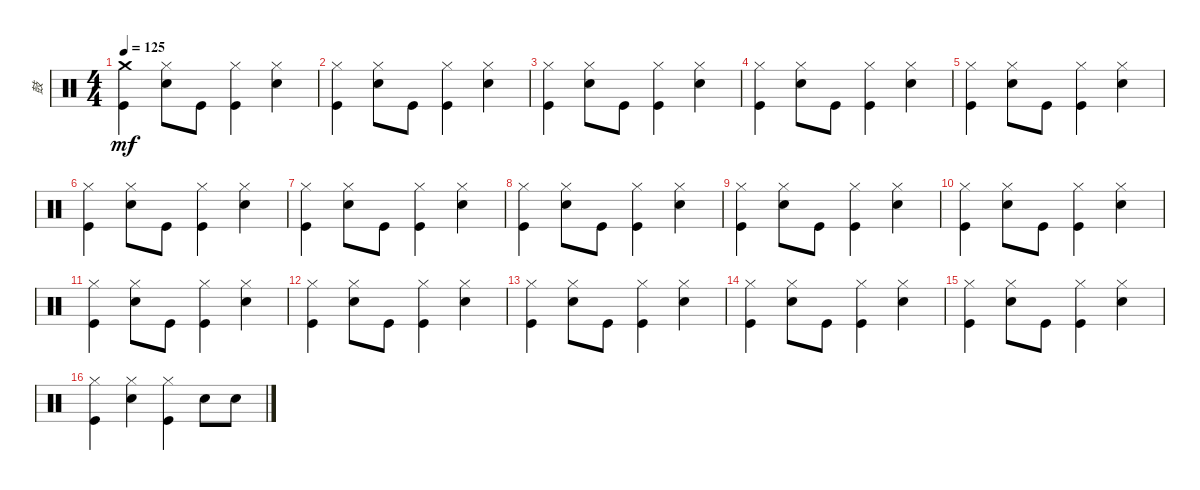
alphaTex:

\track ("鼓" "鼓") {instrument percussion}
\staff {score}
\articulation defaults
\ts (4 4)
\tempo 125
\clef neutral
\ks c
("Kick (hit)" "Crash medium (hit)").4{dy mf} ("Snare (hit) 2" "Hi-Hat (closed)").8 "Kick (hit)".8 ("Kick (hit)" "Hi-Hat (closed)").4 ("Snare (hit) 2" "Hi-Hat (closed)").4 |
("Kick (hit)" "Hi-Hat (closed)").4 ("Snare (hit) 2" "Hi-Hat (closed)").8 "Kick (hit)".8 ("Kick (hit)" "Hi-Hat (closed)").4 ("Snare (hit) 2" "Hi-Hat (closed)").4 |
("Kick (hit)" "Hi-Hat (closed)").4 ("Snare (hit) 2" "Hi-Hat (closed)").8 "Kick (hit)".8 ("Kick (hit)" "Hi-Hat (closed)").4 ("Snare (hit) 2" "Hi-Hat (closed)").4 |
("Kick (hit)" "Hi-Hat (closed)").4 ("Snare (hit) 2" "Hi-Hat (closed)").8 "Kick (hit)".8 ("Kick (hit)" "Hi-Hat (closed)").4 ("Snare (hit) 2" "Hi-Hat (closed)").4 |
("Kick (hit)" "Hi-Hat (closed)").4 ("Snare (hit) 2" "Hi-Hat (closed)").8 "Kick (hit)".8 ("Kick (hit)" "Hi-Hat (closed)").4 ("Snare (hit) 2" "Hi-Hat (closed)").4 |
("Kick (hit)" "Hi-Hat (closed)").4 ("Snare (hit) 2" "Hi-Hat (closed)").8 "Kick (hit)".8 ("Kick (hit)" "Hi-Hat (closed)").4 ("Snare (hit) 2" "Hi-Hat (closed)").4 |
("Kick (hit)" "Hi-Hat (closed)").4 ("Snare (hit) 2" "Hi-Hat (closed)").8 "Kick (hit)".8 ("Kick (hit)" "Hi-Hat (closed)").4 ("Snare (hit) 2" "Hi-Hat (closed)").4 |
("Kick (hit)" "Hi-Hat (closed)").4 ("Snare (hit) 2" "Hi-Hat (closed)").8 "Kick (hit)".8 ("Kick (hit)" "Hi-Hat (closed)").4 ("Snare (hit) 2" "Hi-Hat (closed)").4 |
("Kick (hit)" "Hi-Hat (closed)").4 ("Snare (hit) 2" "Hi-Hat (closed)").8 "Kick (hit)".8 ("Kick (hit)" "Hi-Hat (closed)").4 ("Snare (hit) 2" "Hi-Hat (closed)").4 |
("Kick (hit)" "Hi-Hat (closed)").4 ("Snare (hit) 2" "Hi-Hat (closed)").8 "Kick (hit)".8 ("Kick (hit)" "Hi-Hat (closed)").4 ("Snare (hit) 2" "Hi-Hat (closed)").4 |
("Kick (hit)" "Hi-Hat (closed)").4 ("Snare (hit) 2" "Hi-Hat (closed)").8 "Kick (hit)".8 ("Kick (hit)" "Hi-Hat (closed)").4 ("Snare (hit) 2" "Hi-Hat (closed)").4 |
("Kick (hit)" "Hi-Hat (closed)").4 ("Snare (hit) 2" "Hi-Hat (closed)").8 "Kick (hit)".8 ("Kick (hit)" "Hi-Hat (closed)").4 ("Snare (hit) 2" "Hi-Hat (closed)").4 |
("Kick (hit)" "Hi-Hat (closed)").4 ("Snare (hit) 2" "Hi-Hat (closed)").8 "Kick (hit)".8 ("Kick (hit)" "Hi-Hat (closed)").4 ("Snare (hit) 2" "Hi-Hat (closed)").4 |
("Kick (hit)" "Hi-Hat (closed)").4 ("Snare (hit) 2" "Hi-Hat (closed)").8 "Kick (hit)".8 ("Kick (hit)" "Hi-Hat (closed)").4 ("Snare (hit) 2" "Hi-Hat (closed)").4 |
("Kick (hit)" "Hi-Hat (closed)").4 ("Snare (hit) 2" "Hi-Hat (closed)").8 "Kick (hit)".8 ("Kick (hit)" "Hi-Hat (closed)").4 ("Snare (hit) 2" "Hi-Hat (closed)").4 |
("Kick (hit)" "Hi-Hat (closed)").4 ("Hi-Hat (closed)" "Snare (hit) 2").4 ("Kick (hit)" "Hi-Hat (closed)").4 "Snare (hit) 2".8 "Snare (hit) 2".8
